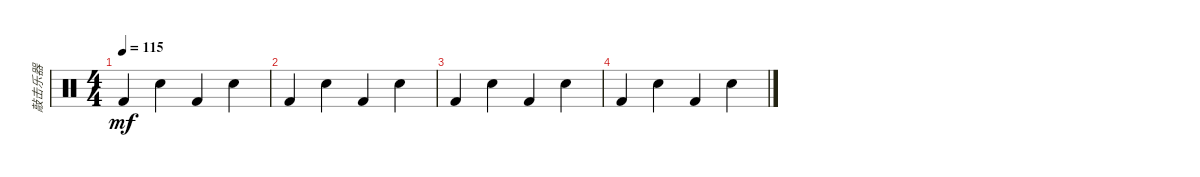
\track ("敲击乐器" "敲击乐器") {instrument percussion}
\staff {score}
\articulation defaults
\ts (4 4)
\tempo 115
\clef neutral
\ks c "Kick (hit) 2".4{dy mf} "Hand Clap (hit)".4 "Kick (hit) 2".4 "Hand Clap (hit)".4
|
"Kick (hit) 2".4 "Hand Clap (hit)".4 "Kick (hit) 2".4 "Hand Clap (hit)".4 |
"Kick (hit) 2".4 "Hand Clap (hit)".4 "Kick (hit) 2".4 "Hand Clap (hit)".4 |
"Kick (hit) 2".4 "Hand Clap (hit)".4 "Kick (hit) 2".4 "Hand Clap (hit)".4
